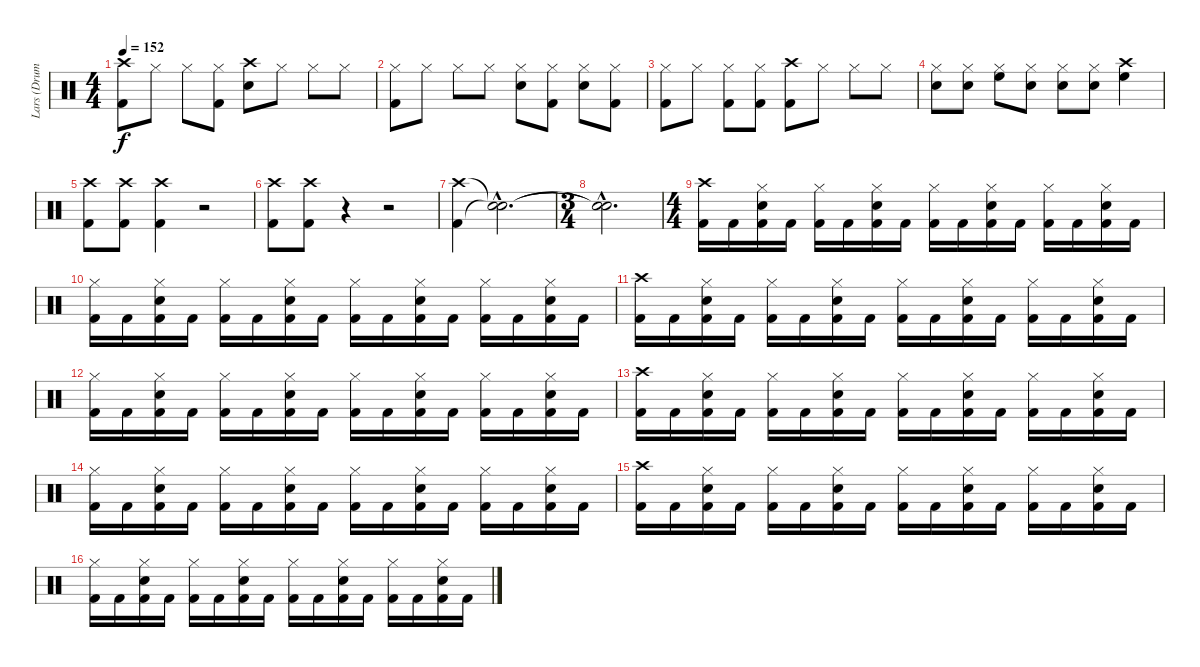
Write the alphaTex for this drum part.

\track ("Lars (Drums)" "Lars (Drum") {instrument percussion}
\staff {score}
\articulation defaults
\ts (4 4)
\tempo 152
\clef neutral
\ks c
("Crash high (hit)" "Kick (hit) 2").8{dy f} "Hi-Hat (closed)".8 "Hi-Hat (closed)".8 ("Hi-Hat (closed)" "Kick (hit) 2").8 ("Crash high (hit)" "Snare (hit) 2").8 "Hi-Hat (closed)".8 "Hi-Hat (closed)".8 "Hi-Hat (closed)".8 |
("Hi-Hat (closed)" "Kick (hit) 2").8 "Hi-Hat (closed)".8 "Hi-Hat (closed)".8 "Hi-Hat (closed)".8 ("Hi-Hat (closed)" "Snare (hit) 2").8 ("Hi-Hat (closed)" "Kick (hit) 2").8 ("Hi-Hat (closed)" "Snare (hit) 2").8 ("Hi-Hat (closed)" "Kick (hit) 2").8 |
("Hi-Hat (closed)" "Kick (hit) 2").8 "Hi-Hat (closed)".8 ("Hi-Hat (closed)" "Kick (hit) 2").8 ("Hi-Hat (closed)" "Kick (hit) 2").8 ("Crash high (hit)" "Kick (hit) 2").8 "Hi-Hat (closed)".8 "Hi-Hat (closed)".8 "Hi-Hat (closed)".8 |
("Hi-Hat (closed)" "Snare (hit) 2").8 ("Hi-Hat (closed)" "Snare (hit) 2").8 ("Hi-Hat (closed)" "High Floor Tom (hit)").8 ("Hi-Hat (closed)" "Snare (hit) 2").8 ("Hi-Hat (closed)" "Snare (hit) 2").8 ("Hi-Hat (closed)" "Snare (hit) 2").8 ("Crash high (hit)" "High Floor Tom (hit)").4 |
("Crash high (hit)" "Kick (hit) 2").8 ("Crash high (hit)" "Kick (hit) 2").8 ("Crash high (hit)" "Kick (hit) 2").4 r.2 |
("Crash high (hit)" "Kick (hit) 2").8 ("Crash high (hit)" "Kick (hit) 2").8 r.4 r.2 |
("Crash high (hit)" "Kick (hit) 2").4 ("Snare (hit)"{hac t} "Snare (hit)"{hac t}).2{d} |
\ts (3 4)
("Snare (hit)"{hac t} "Snare (hit)"{hac t}).2{d} |
\ts (4 4)
("Crash high (hit)" "Kick (hit) 2").16 "Kick (hit) 2".16 ("Hi-Hat (closed)" "Kick (hit) 2" "Snare (hit) 2").16 "Kick (hit) 2".16 ("Hi-Hat (closed)" "Kick (hit) 2").16 "Kick (hit) 2".16 ("Hi-Hat (closed)" "Kick (hit) 2" "Snare (hit) 2").16 "Kick (hit) 2".16 ("Hi-Hat (closed)" "Kick (hit) 2").16 "Kick (hit) 2".16 ("Hi-Hat (closed)" "Kick (hit) 2" "Snare (hit) 2").16 "Kick (hit) 2".16 ("Hi-Hat (closed)" "Kick (hit) 2").16 "Kick (hit) 2".16 ("Hi-Hat (closed)" "Kick (hit) 2" "Snare (hit) 2").16 "Kick (hit) 2".16 |
("Hi-Hat (closed)" "Kick (hit) 2").16 "Kick (hit) 2".16 ("Hi-Hat (closed)" "Kick (hit) 2" "Snare (hit) 2").16 "Kick (hit) 2".16 ("Hi-Hat (closed)" "Kick (hit) 2").16 "Kick (hit) 2".16 ("Hi-Hat (closed)" "Kick (hit) 2" "Snare (hit) 2").16 "Kick (hit) 2".16 ("Hi-Hat (closed)" "Kick (hit) 2").16 "Kick (hit) 2".16 ("Hi-Hat (closed)" "Kick (hit) 2" "Snare (hit) 2").16 "Kick (hit) 2".16 ("Hi-Hat (closed)" "Kick (hit) 2").16 "Kick (hit) 2".16 ("Hi-Hat (closed)" "Kick (hit) 2" "Snare (hit) 2").16 "Kick (hit) 2".16 |
("Crash high (hit)" "Kick (hit) 2").16 "Kick (hit) 2".16 ("Hi-Hat (closed)" "Kick (hit) 2" "Snare (hit) 2").16 "Kick (hit) 2".16 ("Hi-Hat (closed)" "Kick (hit) 2").16 "Kick (hit) 2".16 ("Hi-Hat (closed)" "Kick (hit) 2" "Snare (hit) 2").16 "Kick (hit) 2".16 ("Hi-Hat (closed)" "Kick (hit) 2").16 "Kick (hit) 2".16 ("Hi-Hat (closed)" "Kick (hit) 2" "Snare (hit) 2").16 "Kick (hit) 2".16 ("Hi-Hat (closed)" "Kick (hit) 2").16 "Kick (hit) 2".16 ("Hi-Hat (closed)" "Kick (hit) 2" "Snare (hit) 2").16 "Kick (hit) 2".16 |
("Hi-Hat (closed)" "Kick (hit) 2").16 "Kick (hit) 2".16 ("Hi-Hat (closed)" "Kick (hit) 2" "Snare (hit) 2").16 "Kick (hit) 2".16 ("Hi-Hat (closed)" "Kick (hit) 2").16 "Kick (hit) 2".16 ("Hi-Hat (closed)" "Kick (hit) 2" "Snare (hit) 2").16 "Kick (hit) 2".16 ("Hi-Hat (closed)" "Kick (hit) 2").16 "Kick (hit) 2".16 ("Hi-Hat (closed)" "Kick (hit) 2" "Snare (hit) 2").16 "Kick (hit) 2".16 ("Hi-Hat (closed)" "Kick (hit) 2").16 "Kick (hit) 2".16 ("Hi-Hat (closed)" "Kick (hit) 2" "Snare (hit) 2").16 "Kick (hit) 2".16 |
("Crash high (hit)" "Kick (hit) 2").16 "Kick (hit) 2".16 ("Hi-Hat (closed)" "Kick (hit) 2" "Snare (hit) 2").16 "Kick (hit) 2".16 ("Hi-Hat (closed)" "Kick (hit) 2").16 "Kick (hit) 2".16 ("Hi-Hat (closed)" "Kick (hit) 2" "Snare (hit) 2").16 "Kick (hit) 2".16 ("Hi-Hat (closed)" "Kick (hit) 2").16 "Kick (hit) 2".16 ("Hi-Hat (closed)" "Kick (hit) 2" "Snare (hit) 2").16 "Kick (hit) 2".16 ("Hi-Hat (closed)" "Kick (hit) 2").16 "Kick (hit) 2".16 ("Hi-Hat (closed)" "Kick (hit) 2" "Snare (hit) 2").16 "Kick (hit) 2".16 |
("Hi-Hat (closed)" "Kick (hit) 2").16 "Kick (hit) 2".16 ("Hi-Hat (closed)" "Kick (hit) 2" "Snare (hit) 2").16 "Kick (hit) 2".16 ("Hi-Hat (closed)" "Kick (hit) 2").16 "Kick (hit) 2".16 ("Hi-Hat (closed)" "Kick (hit) 2" "Snare (hit) 2").16 "Kick (hit) 2".16 ("Hi-Hat (closed)" "Kick (hit) 2").16 "Kick (hit) 2".16 ("Hi-Hat (closed)" "Kick (hit) 2" "Snare (hit) 2").16 "Kick (hit) 2".16 ("Hi-Hat (closed)" "Kick (hit) 2").16 "Kick (hit) 2".16 ("Hi-Hat (closed)" "Kick (hit) 2" "Snare (hit) 2").16 "Kick (hit) 2".16 |
("Crash high (hit)" "Kick (hit) 2").16 "Kick (hit) 2".16 ("Hi-Hat (closed)" "Kick (hit) 2" "Snare (hit) 2").16 "Kick (hit) 2".16 ("Hi-Hat (closed)" "Kick (hit) 2").16 "Kick (hit) 2".16 ("Hi-Hat (closed)" "Kick (hit) 2" "Snare (hit) 2").16 "Kick (hit) 2".16 ("Hi-Hat (closed)" "Kick (hit) 2").16 "Kick (hit) 2".16 ("Hi-Hat (closed)" "Kick (hit) 2" "Snare (hit) 2").16 "Kick (hit) 2".16 ("Hi-Hat (closed)" "Kick (hit) 2").16 "Kick (hit) 2".16 ("Hi-Hat (closed)" "Kick (hit) 2" "Snare (hit) 2").16 "Kick (hit) 2".16 |
("Hi-Hat (closed)" "Kick (hit) 2").16 "Kick (hit) 2".16 ("Hi-Hat (closed)" "Kick (hit) 2" "Snare (hit) 2").16 "Kick (hit) 2".16 ("Hi-Hat (closed)" "Kick (hit) 2").16 "Kick (hit) 2".16 ("Hi-Hat (closed)" "Kick (hit) 2" "Snare (hit) 2").16 "Kick (hit) 2".16 ("Hi-Hat (closed)" "Kick (hit) 2").16 "Kick (hit) 2".16 ("Hi-Hat (closed)" "Kick (hit) 2" "Snare (hit) 2").16 "Kick (hit) 2".16 ("Hi-Hat (closed)" "Kick (hit) 2").16 "Kick (hit) 2".16 ("Hi-Hat (closed)" "Kick (hit) 2" "Snare (hit) 2").16 "Kick (hit) 2".16
